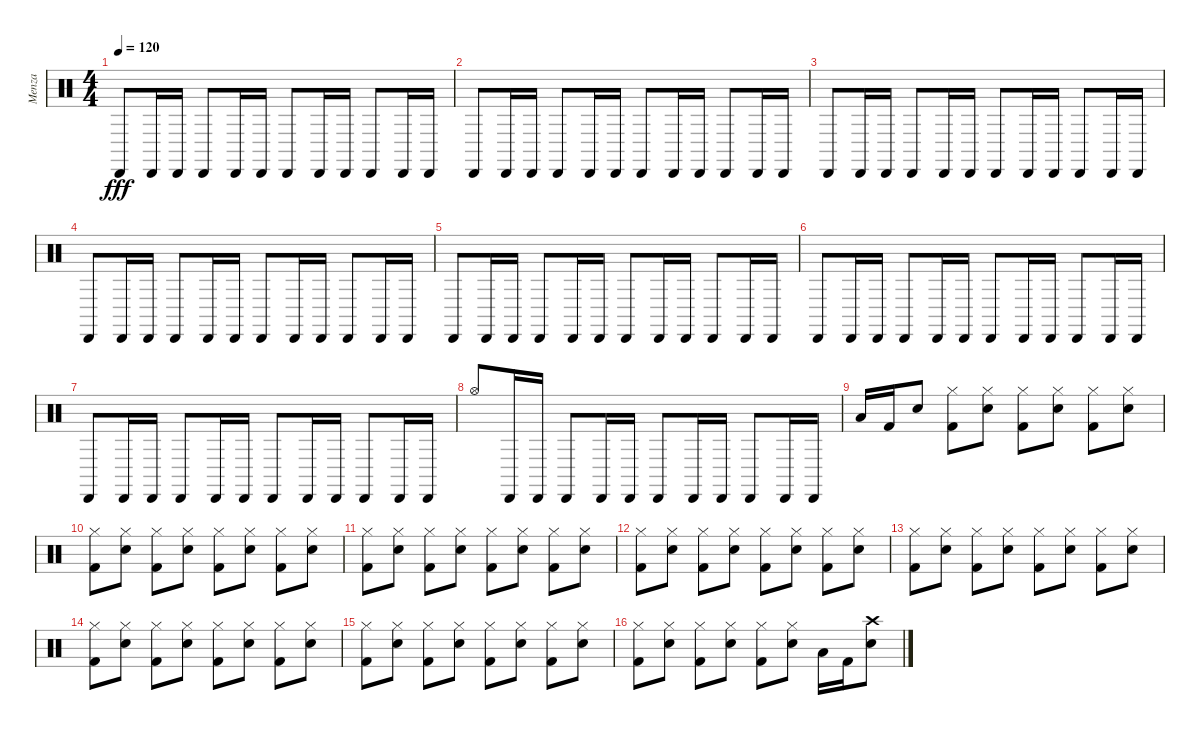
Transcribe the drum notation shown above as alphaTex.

\track ("Menza" "Menza") {instrument percussion}
\staff {score}
\articulation defaults
\ts (4 4)
\tempo 120
\clef neutral
\ks c "Cabasa (hit)".8{dy fff} "Cabasa (hit)".16 "Cabasa (hit)".16 "Cabasa (hit)".8 "Cabasa (hit)".16 "Cabasa (hit)".16 "Cabasa (hit)".8 "Cabasa (hit)".16 "Cabasa (hit)".16 "Cabasa (hit)".8 "Cabasa (hit)".16 "Cabasa (hit)".16
|
"Cabasa (hit)".8 "Cabasa (hit)".16 "Cabasa (hit)".16 "Cabasa (hit)".8 "Cabasa (hit)".16 "Cabasa (hit)".16 "Cabasa (hit)".8 "Cabasa (hit)".16 "Cabasa (hit)".16 "Cabasa (hit)".8 "Cabasa (hit)".16 "Cabasa (hit)".16 |
"Cabasa (hit)".8 "Cabasa (hit)".16 "Cabasa (hit)".16 "Cabasa (hit)".8 "Cabasa (hit)".16 "Cabasa (hit)".16 "Cabasa (hit)".8 "Cabasa (hit)".16 "Cabasa (hit)".16 "Cabasa (hit)".8 "Cabasa (hit)".16 "Cabasa (hit)".16 |
"Cabasa (hit)".8 "Cabasa (hit)".16 "Cabasa (hit)".16 "Cabasa (hit)".8 "Cabasa (hit)".16 "Cabasa (hit)".16 "Cabasa (hit)".8 "Cabasa (hit)".16 "Cabasa (hit)".16 "Cabasa (hit)".8 "Cabasa (hit)".16 "Cabasa (hit)".16 |
"Cabasa (hit)".8 "Cabasa (hit)".16 "Cabasa (hit)".16 "Cabasa (hit)".8 "Cabasa (hit)".16 "Cabasa (hit)".16 "Cabasa (hit)".8 "Cabasa (hit)".16 "Cabasa (hit)".16 "Cabasa (hit)".8 "Cabasa (hit)".16 "Cabasa (hit)".16 |
"Cabasa (hit)".8 "Cabasa (hit)".16 "Cabasa (hit)".16 "Cabasa (hit)".8 "Cabasa (hit)".16 "Cabasa (hit)".16 "Cabasa (hit)".8 "Cabasa (hit)".16 "Cabasa (hit)".16 "Cabasa (hit)".8 "Cabasa (hit)".16 "Cabasa (hit)".16 |
"Cabasa (hit)".8 "Cabasa (hit)".16 "Cabasa (hit)".16 "Cabasa (hit)".8 "Cabasa (hit)".16 "Cabasa (hit)".16 "Cabasa (hit)".8 "Cabasa (hit)".16 "Cabasa (hit)".16 "Cabasa (hit)".8 "Cabasa (hit)".16 "Cabasa (hit)".16 |
"Hi-Hat (open)".8 "Cabasa (hit)".16 "Cabasa (hit)".16 "Cabasa (hit)".8 "Cabasa (hit)".16 "Cabasa (hit)".16 "Cabasa (hit)".8 "Cabasa (hit)".16 "Cabasa (hit)".16 "Cabasa (hit)".8 "Cabasa (hit)".16 "Cabasa (hit)".16 |
"Low Floor Tom (hit)".16 "Kick (hit) 2".16 "Snare (hit) 2".8 ("Hi-Hat (closed)" "Kick (hit) 2").8 ("Hi-Hat (closed)" "Snare (hit) 2").8 ("Hi-Hat (closed)" "Kick (hit) 2").8 ("Hi-Hat (closed)" "Snare (hit) 2").8 ("Hi-Hat (closed)" "Kick (hit) 2").8 ("Hi-Hat (closed)" "Snare (hit) 2").8 |
("Hi-Hat (closed)" "Kick (hit) 2").8 ("Hi-Hat (closed)" "Snare (hit) 2").8 ("Hi-Hat (closed)" "Kick (hit) 2").8 ("Hi-Hat (closed)" "Snare (hit) 2").8 ("Hi-Hat (closed)" "Kick (hit) 2").8 ("Hi-Hat (closed)" "Snare (hit) 2").8 ("Hi-Hat (closed)" "Kick (hit) 2").8 ("Hi-Hat (closed)" "Snare (hit) 2").8 |
("Hi-Hat (closed)" "Kick (hit) 2").8 ("Hi-Hat (closed)" "Snare (hit) 2").8 ("Hi-Hat (closed)" "Kick (hit) 2").8 ("Hi-Hat (closed)" "Snare (hit) 2").8 ("Hi-Hat (closed)" "Kick (hit) 2").8 ("Hi-Hat (closed)" "Snare (hit) 2").8 ("Hi-Hat (closed)" "Kick (hit) 2").8 ("Hi-Hat (closed)" "Snare (hit) 2").8 |
("Hi-Hat (closed)" "Kick (hit) 2").8 ("Hi-Hat (closed)" "Snare (hit) 2").8 ("Hi-Hat (closed)" "Kick (hit) 2").8 ("Hi-Hat (closed)" "Snare (hit) 2").8 ("Hi-Hat (closed)" "Kick (hit) 2").8 ("Hi-Hat (closed)" "Snare (hit) 2").8 ("Hi-Hat (closed)" "Kick (hit) 2").8 ("Hi-Hat (closed)" "Snare (hit) 2").8 |
("Hi-Hat (closed)" "Kick (hit) 2").8 ("Hi-Hat (closed)" "Snare (hit) 2").8 ("Hi-Hat (closed)" "Kick (hit) 2").8 ("Hi-Hat (closed)" "Snare (hit) 2").8 ("Hi-Hat (closed)" "Kick (hit) 2").8 ("Hi-Hat (closed)" "Snare (hit) 2").8 ("Hi-Hat (closed)" "Kick (hit) 2").8 ("Hi-Hat (closed)" "Snare (hit) 2").8 |
("Hi-Hat (closed)" "Kick (hit) 2").8 ("Hi-Hat (closed)" "Snare (hit) 2").8 ("Hi-Hat (closed)" "Kick (hit) 2").8 ("Hi-Hat (closed)" "Snare (hit) 2").8 ("Hi-Hat (closed)" "Kick (hit) 2").8 ("Hi-Hat (closed)" "Snare (hit) 2").8 ("Hi-Hat (closed)" "Kick (hit) 2").8 ("Hi-Hat (closed)" "Snare (hit) 2").8 |
("Hi-Hat (closed)" "Kick (hit) 2").8 ("Hi-Hat (closed)" "Snare (hit) 2").8 ("Hi-Hat (closed)" "Kick (hit) 2").8 ("Hi-Hat (closed)" "Snare (hit) 2").8 ("Hi-Hat (closed)" "Kick (hit) 2").8 ("Hi-Hat (closed)" "Snare (hit) 2").8 ("Hi-Hat (closed)" "Kick (hit) 2").8 ("Hi-Hat (closed)" "Snare (hit) 2").8 |
("Hi-Hat (closed)" "Kick (hit) 2").8 ("Hi-Hat (closed)" "Snare (hit) 2").8 ("Hi-Hat (closed)" "Kick (hit) 2").8 ("Hi-Hat (closed)" "Snare (hit) 2").8 ("Hi-Hat (closed)" "Kick (hit) 2").8 ("Hi-Hat (closed)" "Snare (hit) 2").8 "Low Floor Tom (hit)".16 "Kick (hit) 2".16 ("Snare (hit) 2" "Crash high (hit)").8
